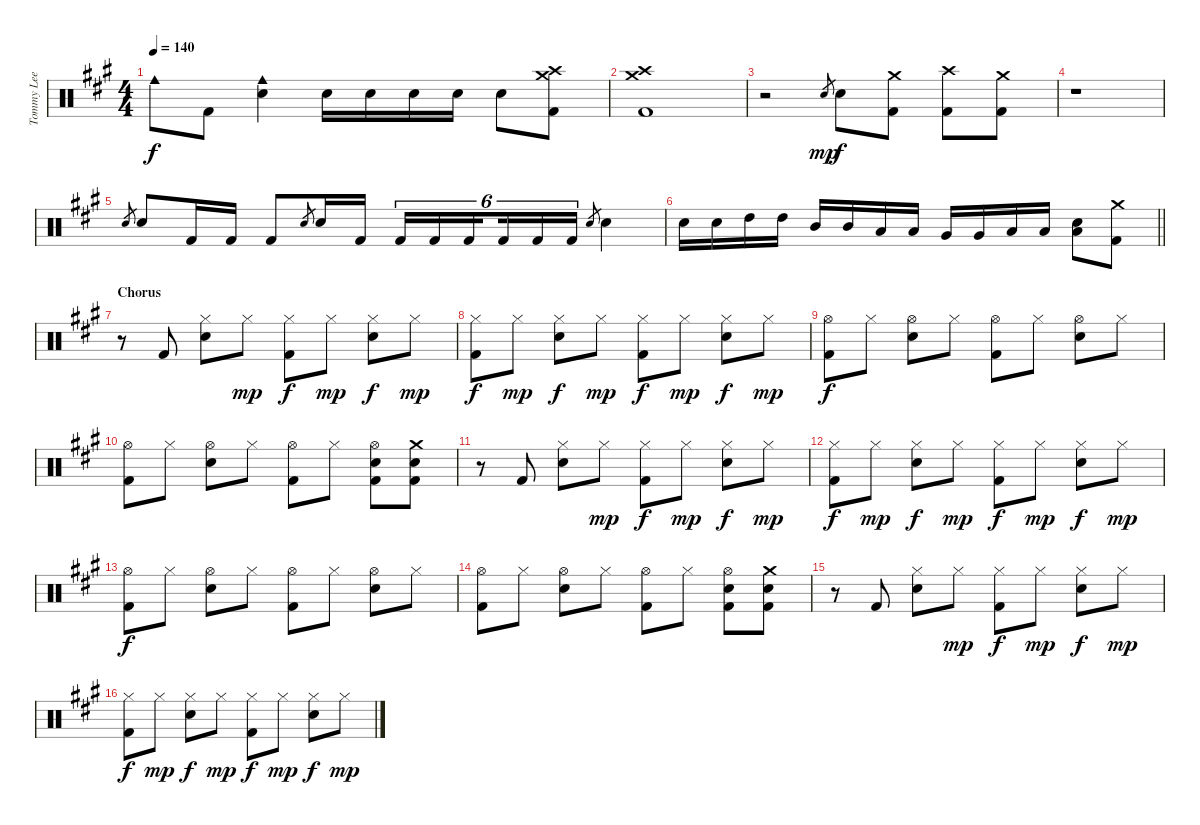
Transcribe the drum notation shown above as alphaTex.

\track ("Tommy Lee - Drums" "Tommy Lee ") {instrument percussion}
\staff {score}
\articulation defaults
\ts (4 4)
\tempo 140
\clef neutral
\ks a "Cowbell medium (hit)".8{dy f} "Kick (hit) 2".8
("Cowbell medium (hit)" "Snare (hit) 2").4 "Snare (hit) 2".16 "Snare (hit) 2".16 "Snare (hit) 2".16 "Snare (hit) 2".16 "Snare (hit) 2".8 ("Crash medium (hit)" "Crash high (hit)" "Kick (hit) 2").8 |
("Crash medium (hit)" "Crash high (hit)" "Kick (hit) 2").1 |
r.2 "Snare (hit) 2".8{gr dy mp} "Snare (hit) 2".8{dy f} ("Crash medium (hit)" "Kick (hit) 2").8 ("Crash high (hit)" "Kick (hit) 2").8 ("Crash medium (hit)" "Kick (hit) 2").8 |
r.1 |
"Snare (hit) 2".8{gr} "Snare (hit) 2".8 "Kick (hit) 2".16 "Kick (hit) 2".16 "Kick (hit) 2".8 "Snare (hit) 2".8{gr} "Snare (hit) 2".16 "Kick (hit) 2".16 "Kick (hit) 2".16{tu (6 4)} "Kick (hit) 2".16{tu (6 4)} "Kick (hit) 2".16{tu (6 4) beam splitsecondary} "Kick (hit) 2".16{tu (6 4)} "Kick (hit) 2".16{tu (6 4)} "Kick (hit) 2".16{tu (6 4)} "Snare (hit) 2".8{gr} "Snare (hit) 2".4 |
\barLineRight lightlight "Snare (hit) 2".16 "Snare (hit) 2".16 "High Tom (hit)".16 "High Tom (hit)".16 "Mid Tom (hit)".16 "Mid Tom (hit)".16 "Low Tom (hit)".16 "Low Tom (hit)".16 "Very Low Tom (hit)".16 "Very Low Tom (hit)".16 "Low Floor Tom (hit)".16 "Low Floor Tom (hit)".16
("Snare (hit)" "Low Floor Tom (hit)").8 ("Crash medium (hit)" "Kick (hit) 2").8 |
\section ("" "Chorus")
r.8 "Kick (hit) 2".8 ("Hi-Hat (closed)" "Snare (hit) 2").8 "Hi-Hat (closed)".8{dy mp} ("Hi-Hat (closed)" "Kick (hit) 2").8{dy f} "Hi-Hat (closed)".8{dy mp} ("Hi-Hat (closed)" "Snare (hit) 2").8{dy f} "Hi-Hat (closed)".8{dy mp} |
("Hi-Hat (closed)" "Kick (hit) 2").8{dy f} "Hi-Hat (closed)".8{dy mp} ("Hi-Hat (closed)" "Snare (hit) 2").8{dy f} "Hi-Hat (closed)".8{dy mp} ("Hi-Hat (closed)" "Kick (hit) 2").8{dy f} "Hi-Hat (closed)".8{dy mp} ("Hi-Hat (closed)" "Snare (hit) 2").8{dy f} "Hi-Hat (closed)".8{dy mp} |
("Hi-Hat (open)" "Kick (hit) 2").8{dy f} "Hi-Hat (closed)".8 ("Hi-Hat (open)" "Snare (hit) 2").8 "Hi-Hat (closed)".8 ("Hi-Hat (open)" "Kick (hit) 2").8 "Hi-Hat (closed)".8 ("Hi-Hat (open)" "Snare (hit) 2").8 "Hi-Hat (closed)".8 |
("Hi-Hat (open)" "Kick (hit) 2").8 "Hi-Hat (closed)".8 ("Hi-Hat (open)" "Snare (hit) 2").8 "Hi-Hat (closed)".8 ("Hi-Hat (open)" "Kick (hit) 2").8 "Hi-Hat (closed)".8 ("Hi-Hat (open)" "Snare (hit) 2" "Kick (hit) 2").8 ("Crash medium (hit)" "Snare (hit) 2" "Kick (hit) 2").8 |
r.8 "Kick (hit) 2".8 ("Hi-Hat (closed)" "Snare (hit) 2").8 "Hi-Hat (closed)".8{dy mp} ("Hi-Hat (closed)" "Kick (hit) 2").8{dy f} "Hi-Hat (closed)".8{dy mp} ("Hi-Hat (closed)" "Snare (hit) 2").8{dy f} "Hi-Hat (closed)".8{dy mp} |
("Hi-Hat (closed)" "Kick (hit) 2").8{dy f} "Hi-Hat (closed)".8{dy mp} ("Hi-Hat (closed)" "Snare (hit) 2").8{dy f} "Hi-Hat (closed)".8{dy mp} ("Hi-Hat (closed)" "Kick (hit) 2").8{dy f} "Hi-Hat (closed)".8{dy mp} ("Hi-Hat (closed)" "Snare (hit) 2").8{dy f} "Hi-Hat (closed)".8{dy mp} |
("Hi-Hat (open)" "Kick (hit) 2").8{dy f} "Hi-Hat (closed)".8 ("Hi-Hat (open)" "Snare (hit) 2").8 "Hi-Hat (closed)".8 ("Hi-Hat (open)" "Kick (hit) 2").8 "Hi-Hat (closed)".8 ("Hi-Hat (open)" "Snare (hit) 2").8 "Hi-Hat (closed)".8 |
("Hi-Hat (open)" "Kick (hit) 2").8 "Hi-Hat (closed)".8 ("Hi-Hat (open)" "Snare (hit) 2").8 "Hi-Hat (closed)".8 ("Hi-Hat (open)" "Kick (hit) 2").8 "Hi-Hat (closed)".8 ("Hi-Hat (open)" "Snare (hit) 2" "Kick (hit) 2").8 ("Crash medium (hit)" "Snare (hit) 2" "Kick (hit) 2").8 |
r.8 "Kick (hit) 2".8 ("Hi-Hat (closed)" "Snare (hit) 2").8 "Hi-Hat (closed)".8{dy mp} ("Hi-Hat (closed)" "Kick (hit) 2").8{dy f} "Hi-Hat (closed)".8{dy mp} ("Hi-Hat (closed)" "Snare (hit) 2").8{dy f} "Hi-Hat (closed)".8{dy mp} |
("Hi-Hat (closed)" "Kick (hit) 2").8{dy f} "Hi-Hat (closed)".8{dy mp} ("Hi-Hat (closed)" "Snare (hit) 2").8{dy f} "Hi-Hat (closed)".8{dy mp} ("Hi-Hat (closed)" "Kick (hit) 2").8{dy f} "Hi-Hat (closed)".8{dy mp} ("Hi-Hat (closed)" "Snare (hit) 2").8{dy f} "Hi-Hat (closed)".8{dy mp}
